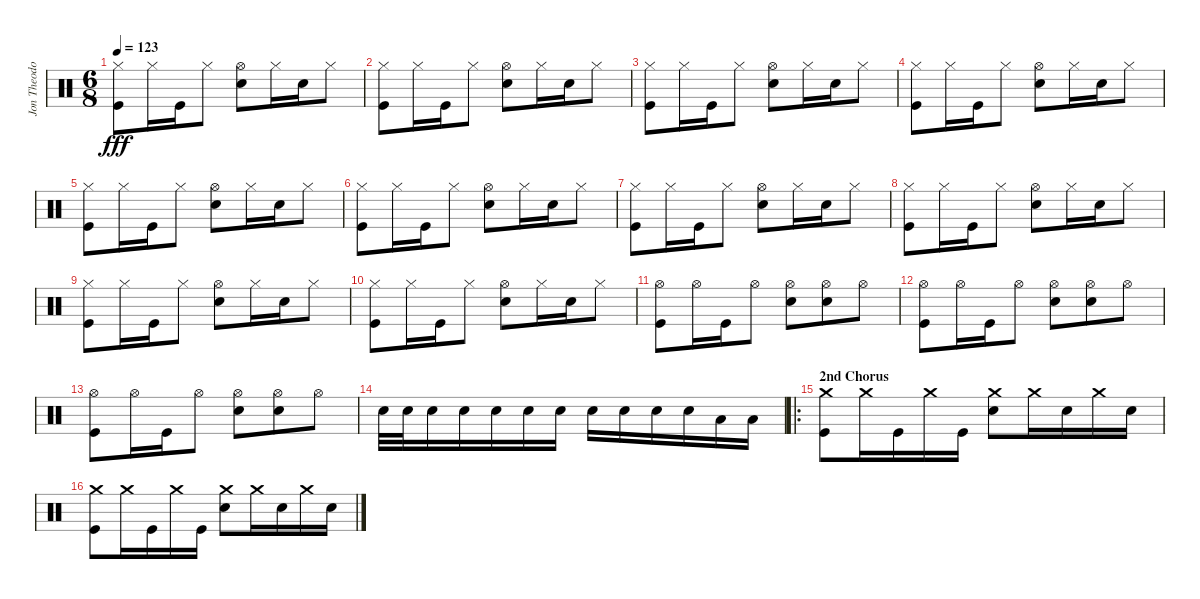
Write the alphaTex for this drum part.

\track ("Jon Theodore - Drums" "Jon Theodo") {instrument percussion}
\staff {score}
\articulation defaults
\ts (6 8)
\tempo 123
\clef neutral
\ks c
("Hi-Hat (closed)" "Kick (hit)").8{dy fff} "Hi-Hat (closed)".16 "Kick (hit)".16 "Hi-Hat (closed)".8 ("Hi-Hat (open)" "Snare (hit) 2").8 "Hi-Hat (closed)".16 "Snare (hit) 2".16 "Hi-Hat (closed)".8 |
("Hi-Hat (closed)" "Kick (hit)").8 "Hi-Hat (closed)".16 "Kick (hit)".16 "Hi-Hat (closed)".8 ("Hi-Hat (open)" "Snare (hit) 2").8 "Hi-Hat (closed)".16 "Snare (hit) 2".16 "Hi-Hat (closed)".8 |
("Hi-Hat (closed)" "Kick (hit)").8 "Hi-Hat (closed)".16 "Kick (hit)".16 "Hi-Hat (closed)".8 ("Hi-Hat (open)" "Snare (hit) 2").8 "Hi-Hat (closed)".16 "Snare (hit) 2".16 "Hi-Hat (closed)".8 |
("Hi-Hat (closed)" "Kick (hit)").8 "Hi-Hat (closed)".16 "Kick (hit)".16 "Hi-Hat (closed)".8 ("Hi-Hat (open)" "Snare (hit) 2").8 "Hi-Hat (closed)".16 "Snare (hit) 2".16 "Hi-Hat (closed)".8 |
("Hi-Hat (closed)" "Kick (hit)").8 "Hi-Hat (closed)".16 "Kick (hit)".16 "Hi-Hat (closed)".8 ("Hi-Hat (open)" "Snare (hit) 2").8 "Hi-Hat (closed)".16 "Snare (hit) 2".16 "Hi-Hat (closed)".8 |
("Hi-Hat (closed)" "Kick (hit)").8 "Hi-Hat (closed)".16 "Kick (hit)".16 "Hi-Hat (closed)".8 ("Hi-Hat (open)" "Snare (hit) 2").8 "Hi-Hat (closed)".16 "Snare (hit) 2".16 "Hi-Hat (closed)".8 |
("Hi-Hat (closed)" "Kick (hit)").8 "Hi-Hat (closed)".16 "Kick (hit)".16 "Hi-Hat (closed)".8 ("Hi-Hat (open)" "Snare (hit) 2").8 "Hi-Hat (closed)".16 "Snare (hit) 2".16 "Hi-Hat (closed)".8 |
("Hi-Hat (closed)" "Kick (hit)").8 "Hi-Hat (closed)".16 "Kick (hit)".16 "Hi-Hat (closed)".8 ("Hi-Hat (open)" "Snare (hit) 2").8 "Hi-Hat (closed)".16 "Snare (hit) 2".16 "Hi-Hat (closed)".8 |
("Hi-Hat (closed)" "Kick (hit)").8 "Hi-Hat (closed)".16 "Kick (hit)".16 "Hi-Hat (closed)".8 ("Hi-Hat (open)" "Snare (hit) 2").8 "Hi-Hat (closed)".16 "Snare (hit) 2".16 "Hi-Hat (closed)".8 |
("Hi-Hat (closed)" "Kick (hit)").8 "Hi-Hat (closed)".16 "Kick (hit)".16 "Hi-Hat (closed)".8 ("Hi-Hat (open)" "Snare (hit) 2").8 "Hi-Hat (closed)".16 "Snare (hit) 2".16 "Hi-Hat (closed)".8 |
("Hi-Hat (open)" "Kick (hit)").8 "Hi-Hat (open)".16 "Kick (hit)".16 "Hi-Hat (open)".8 ("Hi-Hat (open)" "Snare (hit) 2").8 ("Hi-Hat (open)" "Snare (hit) 2").8 "Hi-Hat (open)".8 |
("Hi-Hat (open)" "Kick (hit)").8 "Hi-Hat (open)".16 "Kick (hit)".16 "Hi-Hat (open)".8 ("Hi-Hat (open)" "Snare (hit) 2").8 ("Hi-Hat (open)" "Snare (hit) 2").8 "Hi-Hat (open)".8 |
("Hi-Hat (open)" "Kick (hit)").8 "Hi-Hat (open)".16 "Kick (hit)".16 "Hi-Hat (open)".8 ("Hi-Hat (open)" "Snare (hit) 2").8 ("Hi-Hat (open)" "Snare (hit) 2").8 "Hi-Hat (open)".8 |
"Snare (hit) 2".32 "Snare (hit) 2".32 "Snare (hit) 2".16 "Snare (hit) 2".16 "Snare (hit) 2".16 "Snare (hit) 2".16 "Snare (hit) 2".16 "Snare (hit) 2".16 "Snare (hit) 2".16 "Snare (hit) 2".16 "Snare (hit) 2".16 "Low Tom (hit)".16 "Low Tom (hit)".16 |
\ro
\section ("" "2nd Chorus")
("Crash medium (hit)" "Kick (hit)").8 "Crash medium (hit)".16 "Kick (hit)".16 "Crash medium (hit)".16 "Kick (hit)".16 ("Crash medium (hit)" "Snare (hit) 2").8 "Crash medium (hit)".16 "Snare (hit) 2".16 "Crash medium (hit)".16 "Snare (hit) 2".16 |
("Crash medium (hit)" "Kick (hit)").8 "Crash medium (hit)".16 "Kick (hit)".16 "Crash medium (hit)".16 "Kick (hit)".16 ("Crash medium (hit)" "Snare (hit) 2").8 "Crash medium (hit)".16 "Snare (hit) 2".16 "Crash medium (hit)".16 "Snare (hit) 2".16
